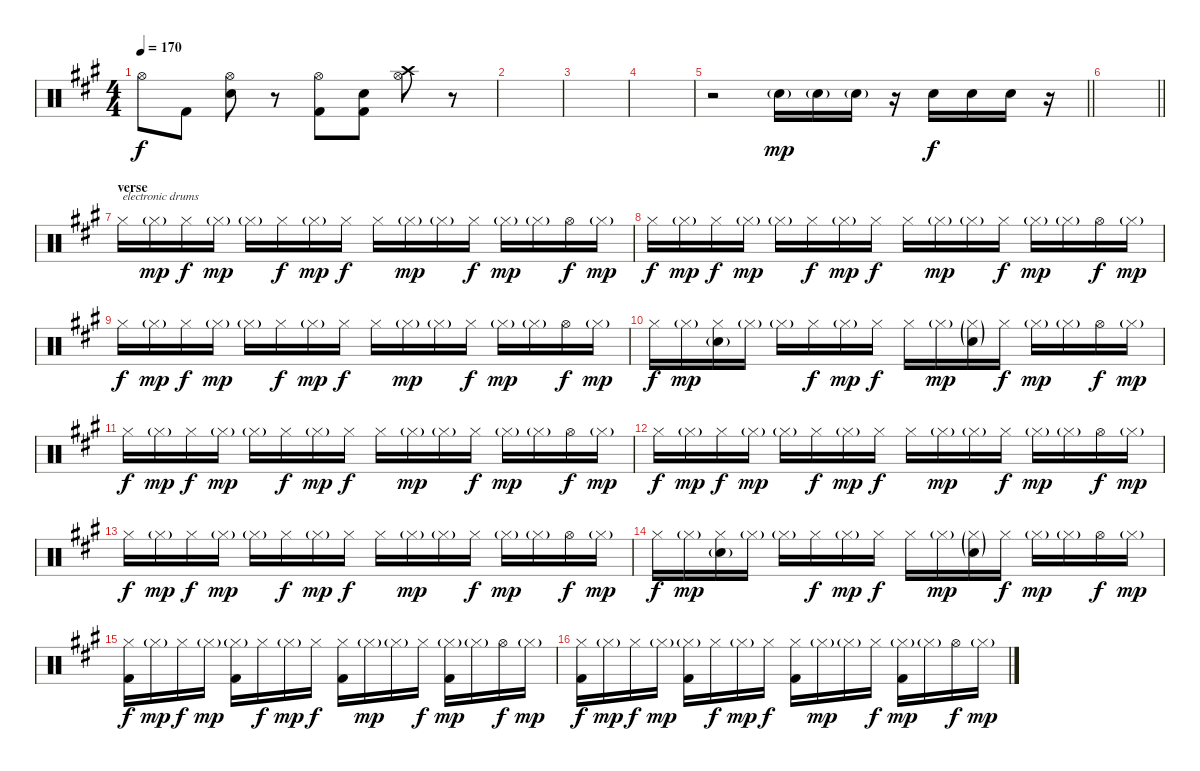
\track "" {instrument percussion}
\staff {score}
\articulation defaults
\ts (4 4)
\tempo 170
\clef neutral
\ks f#minor "Hi-Hat (open)".8{dy f} "Kick (hit) 2".8
("Electric Snare (hit)" "Hi-Hat (open)").8 r.8 ("Kick (hit) 2" "Hi-Hat (open)").8 ("Kick (hit) 2" "Electric Snare (hit)").8 ("Hi-Hat (open)" "Crash high (hit)").8 r.8 |
|
|
|
\barLineRight lightlight
r.2 "Electric Snare (hit)"{g}.16{dy mp} "Electric Snare (hit)"{g}.16 "Electric Snare (hit)"{g}.16 r.16 "Electric Snare (hit)".16{dy f} "Electric Snare (hit)".16 "Electric Snare (hit)".16 r.16 |
\barLineRight lightlight
|
\section ("" "verse")
"Hi-Hat (closed)".16{txt "electronic drums"} "Hi-Hat (closed)"{g}.16{dy mp} "Hi-Hat (closed)".16{dy f} "Hi-Hat (closed)"{g}.16{dy mp} "Hi-Hat (closed)"{g}.16 "Hi-Hat (closed)".16{dy f} "Hi-Hat (closed)"{g}.16{dy mp} "Hi-Hat (closed)".16{dy f} "Hi-Hat (closed)".16 "Hi-Hat (closed)"{g}.16{dy mp} "Hi-Hat (closed)"{g}.16 "Hi-Hat (closed)".16{dy f} "Hi-Hat (closed)"{g}.16{dy mp} "Hi-Hat (closed)"{g}.16 "Hi-Hat (open)".16{dy f} "Hi-Hat (closed)"{g}.16{dy mp} |
"Hi-Hat (closed)".16{dy f} "Hi-Hat (closed)"{g}.16{dy mp} "Hi-Hat (closed)".16{dy f} "Hi-Hat (closed)"{g}.16{dy mp} "Hi-Hat (closed)"{g}.16 "Hi-Hat (closed)".16{dy f} "Hi-Hat (closed)"{g}.16{dy mp} "Hi-Hat (closed)".16{dy f} "Hi-Hat (closed)".16 "Hi-Hat (closed)"{g}.16{dy mp} "Hi-Hat (closed)"{g}.16 "Hi-Hat (closed)".16{dy f} "Hi-Hat (closed)"{g}.16{dy mp} "Hi-Hat (closed)"{g}.16 "Hi-Hat (open)".16{dy f} "Hi-Hat (closed)"{g}.16{dy mp} |
"Hi-Hat (closed)".16{dy f} "Hi-Hat (closed)"{g}.16{dy mp} "Hi-Hat (closed)".16{dy f} "Hi-Hat (closed)"{g}.16{dy mp} "Hi-Hat (closed)"{g}.16 "Hi-Hat (closed)".16{dy f} "Hi-Hat (closed)"{g}.16{dy mp} "Hi-Hat (closed)".16{dy f} "Hi-Hat (closed)".16 "Hi-Hat (closed)"{g}.16{dy mp} "Hi-Hat (closed)"{g}.16 "Hi-Hat (closed)".16{dy f} "Hi-Hat (closed)"{g}.16{dy mp} "Hi-Hat (closed)"{g}.16 "Hi-Hat (open)".16{dy f} "Hi-Hat (closed)"{g}.16{dy mp} |
"Hi-Hat (closed)".16{dy f} "Hi-Hat (closed)"{g}.16{dy mp} ("Electric Snare (hit)"{g} "Hi-Hat (closed)").16 "Hi-Hat (closed)"{g}.16 "Hi-Hat (closed)"{g}.16 "Hi-Hat (closed)".16{dy f} "Hi-Hat (closed)"{g}.16{dy mp} "Hi-Hat (closed)".16{dy f} "Hi-Hat (closed)".16 "Hi-Hat (closed)"{g}.16{dy mp} ("Electric Snare (hit)"{g} "Hi-Hat (closed)"{g}).16 "Hi-Hat (closed)".16{dy f} "Hi-Hat (closed)"{g}.16{dy mp} "Hi-Hat (closed)"{g}.16 "Hi-Hat (open)".16{dy f} "Hi-Hat (closed)"{g}.16{dy mp} |
"Hi-Hat (closed)".16{dy f} "Hi-Hat (closed)"{g}.16{dy mp} "Hi-Hat (closed)".16{dy f} "Hi-Hat (closed)"{g}.16{dy mp} "Hi-Hat (closed)"{g}.16 "Hi-Hat (closed)".16{dy f} "Hi-Hat (closed)"{g}.16{dy mp} "Hi-Hat (closed)".16{dy f} "Hi-Hat (closed)".16 "Hi-Hat (closed)"{g}.16{dy mp} "Hi-Hat (closed)"{g}.16 "Hi-Hat (closed)".16{dy f} "Hi-Hat (closed)"{g}.16{dy mp} "Hi-Hat (closed)"{g}.16 "Hi-Hat (open)".16{dy f} "Hi-Hat (closed)"{g}.16{dy mp} |
"Hi-Hat (closed)".16{dy f} "Hi-Hat (closed)"{g}.16{dy mp} "Hi-Hat (closed)".16{dy f} "Hi-Hat (closed)"{g}.16{dy mp} "Hi-Hat (closed)"{g}.16 "Hi-Hat (closed)".16{dy f} "Hi-Hat (closed)"{g}.16{dy mp} "Hi-Hat (closed)".16{dy f} "Hi-Hat (closed)".16 "Hi-Hat (closed)"{g}.16{dy mp} "Hi-Hat (closed)"{g}.16 "Hi-Hat (closed)".16{dy f} "Hi-Hat (closed)"{g}.16{dy mp} "Hi-Hat (closed)"{g}.16 "Hi-Hat (open)".16{dy f} "Hi-Hat (closed)"{g}.16{dy mp} |
"Hi-Hat (closed)".16{dy f} "Hi-Hat (closed)"{g}.16{dy mp} "Hi-Hat (closed)".16{dy f} "Hi-Hat (closed)"{g}.16{dy mp} "Hi-Hat (closed)"{g}.16 "Hi-Hat (closed)".16{dy f} "Hi-Hat (closed)"{g}.16{dy mp} "Hi-Hat (closed)".16{dy f} "Hi-Hat (closed)".16 "Hi-Hat (closed)"{g}.16{dy mp} "Hi-Hat (closed)"{g}.16 "Hi-Hat (closed)".16{dy f} "Hi-Hat (closed)"{g}.16{dy mp} "Hi-Hat (closed)"{g}.16 "Hi-Hat (open)".16{dy f} "Hi-Hat (closed)"{g}.16{dy mp} |
"Hi-Hat (closed)".16{dy f} "Hi-Hat (closed)"{g}.16{dy mp} ("Electric Snare (hit)"{g} "Hi-Hat (closed)").16 "Hi-Hat (closed)"{g}.16 "Hi-Hat (closed)"{g}.16 "Hi-Hat (closed)".16{dy f} "Hi-Hat (closed)"{g}.16{dy mp} "Hi-Hat (closed)".16{dy f} "Hi-Hat (closed)".16 "Hi-Hat (closed)"{g}.16{dy mp} ("Electric Snare (hit)"{g} "Hi-Hat (closed)"{g}).16 "Hi-Hat (closed)".16{dy f} "Hi-Hat (closed)"{g}.16{dy mp} "Hi-Hat (closed)"{g}.16 "Hi-Hat (open)".16{dy f} "Hi-Hat (closed)"{g}.16{dy mp} |
("Kick (hit) 2" "Hi-Hat (closed)").16{dy f} "Hi-Hat (closed)"{g}.16{dy mp} "Hi-Hat (closed)".16{dy f} "Hi-Hat (closed)"{g}.16{dy mp} ("Kick (hit) 2" "Hi-Hat (closed)"{g}).16 "Hi-Hat (closed)".16{dy f} "Hi-Hat (closed)"{g}.16{dy mp} "Hi-Hat (closed)".16{dy f} ("Kick (hit) 2" "Hi-Hat (closed)").16 "Hi-Hat (closed)"{g}.16{dy mp} "Hi-Hat (closed)"{g}.16 "Hi-Hat (closed)".16{dy f} ("Kick (hit) 2" "Hi-Hat (closed)"{g}).16{dy mp} "Hi-Hat (closed)"{g}.16 "Hi-Hat (open)".16{dy f} "Hi-Hat (closed)"{g}.16{dy mp} |
("Kick (hit) 2" "Hi-Hat (closed)").16{dy f} "Hi-Hat (closed)"{g}.16{dy mp} "Hi-Hat (closed)".16{dy f} "Hi-Hat (closed)"{g}.16{dy mp} ("Kick (hit) 2" "Hi-Hat (closed)"{g}).16 "Hi-Hat (closed)".16{dy f} "Hi-Hat (closed)"{g}.16{dy mp} "Hi-Hat (closed)".16{dy f} ("Kick (hit) 2" "Hi-Hat (closed)").16 "Hi-Hat (closed)"{g}.16{dy mp} "Hi-Hat (closed)"{g}.16 "Hi-Hat (closed)".16{dy f} ("Kick (hit) 2" "Hi-Hat (closed)"{g}).16{dy mp} "Hi-Hat (closed)"{g}.16 "Hi-Hat (open)".16{dy f} "Hi-Hat (closed)"{g}.16{dy mp}
